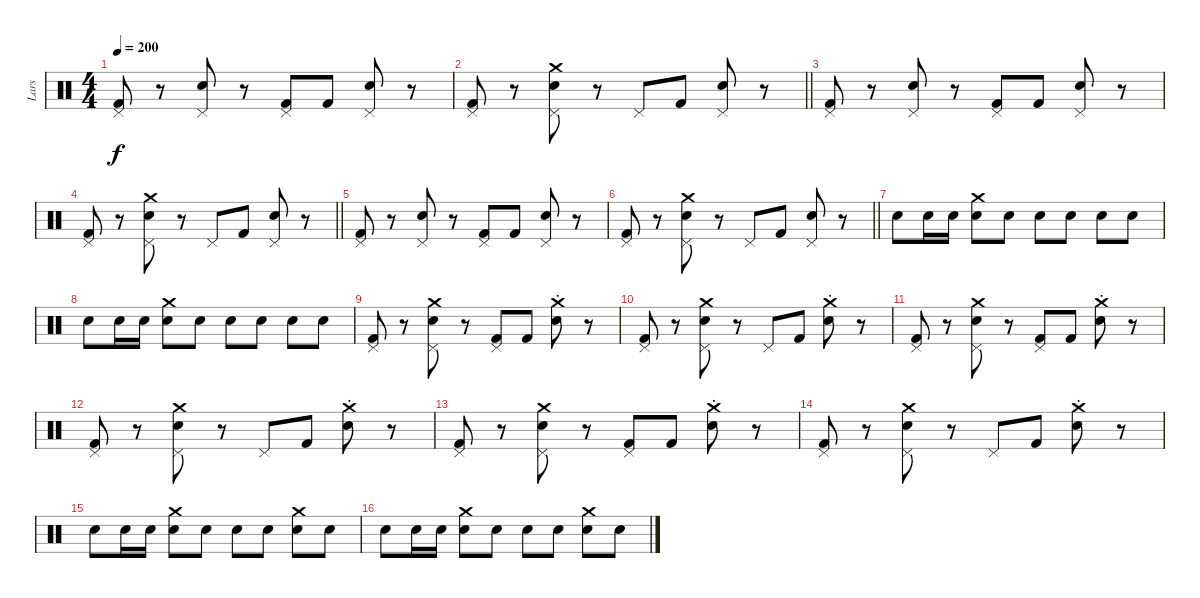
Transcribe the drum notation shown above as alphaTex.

\track ("Lars" "Lars") {instrument percussion}
\staff {score}
\articulation defaults
\ts (4 4)
\tempo 200
\clef neutral
\ks c
("Pedal Hi-Hat (hit)" "Kick (hit) 2").8{dy f} r.8 ("Pedal Hi-Hat (hit)" "Snare (hit) 2").8 r.8 ("Pedal Hi-Hat (hit)" "Kick (hit) 2").8 "Kick (hit) 2".8 ("Pedal Hi-Hat (hit)" "Snare (hit) 2").8 r.8 |
\barLineRight lightlight
("Pedal Hi-Hat (hit)" "Kick (hit) 2").8 r.8 ("Crash medium (hit)" "Pedal Hi-Hat (hit)" "Snare (hit) 2").8 r.8 "Pedal Hi-Hat (hit)".8 "Kick (hit) 2".8 ("Pedal Hi-Hat (hit)" "Snare (hit) 2").8 r.8 |
("Pedal Hi-Hat (hit)" "Kick (hit) 2").8 r.8 ("Pedal Hi-Hat (hit)" "Snare (hit) 2").8 r.8 ("Pedal Hi-Hat (hit)" "Kick (hit) 2").8 "Kick (hit) 2".8 ("Pedal Hi-Hat (hit)" "Snare (hit) 2").8 r.8 |
\barLineRight lightlight
("Pedal Hi-Hat (hit)" "Kick (hit) 2").8 r.8 ("Crash medium (hit)" "Pedal Hi-Hat (hit)" "Snare (hit) 2").8 r.8 "Pedal Hi-Hat (hit)".8 "Kick (hit) 2".8 ("Pedal Hi-Hat (hit)" "Snare (hit) 2").8 r.8 |
("Pedal Hi-Hat (hit)" "Kick (hit) 2").8 r.8 ("Pedal Hi-Hat (hit)" "Snare (hit) 2").8 r.8 ("Pedal Hi-Hat (hit)" "Kick (hit) 2").8 "Kick (hit) 2".8 ("Pedal Hi-Hat (hit)" "Snare (hit) 2").8 r.8 |
\barLineRight lightlight
("Pedal Hi-Hat (hit)" "Kick (hit) 2").8 r.8 ("Crash medium (hit)" "Pedal Hi-Hat (hit)" "Snare (hit) 2").8 r.8 "Pedal Hi-Hat (hit)".8 "Kick (hit) 2".8 ("Pedal Hi-Hat (hit)" "Snare (hit) 2").8 r.8 |
"Snare (hit) 2".8 "Snare (hit) 2".16 "Snare (hit) 2".16 ("Crash medium (hit)" "Snare (hit) 2").8 "Snare (hit) 2".8 "Snare (hit) 2".8 "Snare (hit) 2".8 "Snare (hit) 2".8 "Snare (hit) 2".8 |
"Snare (hit) 2".8 "Snare (hit) 2".16 "Snare (hit) 2".16 ("Crash medium (hit)" "Snare (hit) 2").8 "Snare (hit) 2".8 "Snare (hit) 2".8 "Snare (hit) 2".8 "Snare (hit) 2".8 "Snare (hit) 2".8 |
("Pedal Hi-Hat (hit)" "Kick (hit) 2").8 r.8 ("Crash medium (hit)" "Pedal Hi-Hat (hit)" "Snare (hit) 2").8 r.8 ("Pedal Hi-Hat (hit)" "Kick (hit) 2").8 "Kick (hit) 2".8 ("Crash medium (hit)"{st} "Snare (hit) 2").8 r.8 |
("Pedal Hi-Hat (hit)" "Kick (hit) 2").8 r.8 ("Crash medium (hit)" "Pedal Hi-Hat (hit)" "Snare (hit) 2").8 r.8 "Pedal Hi-Hat (hit)".8 "Kick (hit) 2".8 ("Crash medium (hit)"{st} "Snare (hit) 2").8 r.8 |
("Pedal Hi-Hat (hit)" "Kick (hit) 2").8 r.8 ("Crash medium (hit)" "Pedal Hi-Hat (hit)" "Snare (hit) 2").8 r.8 ("Pedal Hi-Hat (hit)" "Kick (hit) 2").8 "Kick (hit) 2".8 ("Crash medium (hit)"{st} "Snare (hit) 2").8 r.8 |
("Pedal Hi-Hat (hit)" "Kick (hit) 2").8 r.8 ("Crash medium (hit)" "Pedal Hi-Hat (hit)" "Snare (hit) 2").8 r.8 "Pedal Hi-Hat (hit)".8 "Kick (hit) 2".8 ("Crash medium (hit)"{st} "Snare (hit) 2").8 r.8 |
("Pedal Hi-Hat (hit)" "Kick (hit) 2").8 r.8 ("Crash medium (hit)" "Pedal Hi-Hat (hit)" "Snare (hit) 2").8 r.8 ("Pedal Hi-Hat (hit)" "Kick (hit) 2").8 "Kick (hit) 2".8 ("Crash medium (hit)"{st} "Snare (hit) 2").8 r.8 |
("Pedal Hi-Hat (hit)" "Kick (hit) 2").8 r.8 ("Crash medium (hit)" "Pedal Hi-Hat (hit)" "Snare (hit) 2").8 r.8 "Pedal Hi-Hat (hit)".8 "Kick (hit) 2".8 ("Crash medium (hit)"{st} "Snare (hit) 2").8 r.8 |
"Snare (hit) 2".8 "Snare (hit) 2".16 "Snare (hit) 2".16 ("Crash medium (hit)" "Snare (hit) 2").8 "Snare (hit) 2".8 "Snare (hit) 2".8 "Snare (hit) 2".8 ("Crash medium (hit)" "Snare (hit) 2").8 "Snare (hit) 2".8 |
"Snare (hit) 2".8 "Snare (hit) 2".16 "Snare (hit) 2".16 ("Crash medium (hit)" "Snare (hit) 2").8 "Snare (hit) 2".8 "Snare (hit) 2".8 "Snare (hit) 2".8 ("Crash medium (hit)" "Snare (hit) 2").8 "Snare (hit) 2".8
